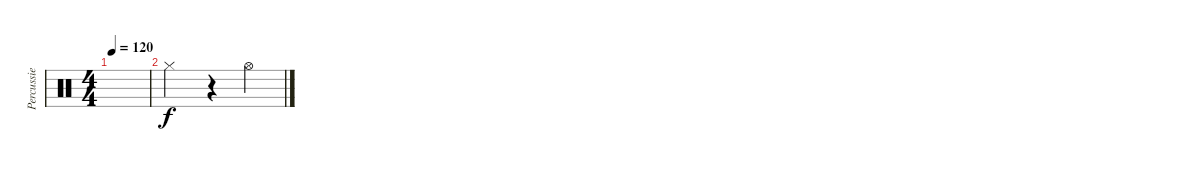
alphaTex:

\track ("Percussie" "Percussie") {instrument percussion}
\staff {score}
\articulation defaults
\ts (4 4)
\tempo 120
\clef neutral
\ks c
|
"Hi-Hat (closed)".2 r.4 "Hi-Hat (open)".4
